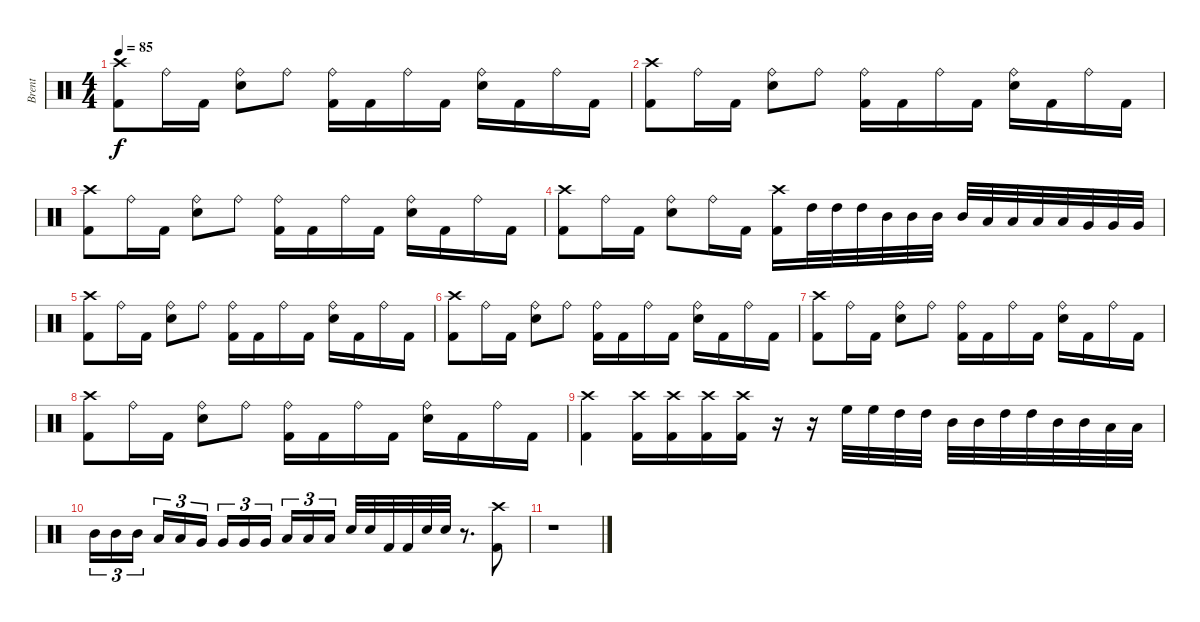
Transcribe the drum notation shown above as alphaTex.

\track ("Brent" "Brent") {instrument percussion}
\staff {score}
\articulation defaults
\ts (4 4)
\tempo 85
\clef neutral
\ks c
("Crash high (hit)" "Kick (hit) 2").8{dy f} "Ride (bell)".16 "Kick (hit) 2".16 ("Ride (bell)" "Snare (hit) 2").8 "Ride (bell)".8 ("Ride (bell)" "Kick (hit) 2").16 "Kick (hit) 2".16 "Ride (bell)".16 "Kick (hit) 2".16 ("Ride (bell)" "Snare (hit) 2").16 "Kick (hit) 2".16 "Ride (bell)".16 "Kick (hit) 2".16 |
("Crash high (hit)" "Kick (hit) 2").8 "Ride (bell)".16 "Kick (hit) 2".16 ("Ride (bell)" "Snare (hit) 2").8 "Ride (bell)".8 ("Ride (bell)" "Kick (hit) 2").16 "Kick (hit) 2".16 "Ride (bell)".16 "Kick (hit) 2".16 ("Ride (bell)" "Snare (hit) 2").16 "Kick (hit) 2".16 "Ride (bell)".16 "Kick (hit) 2".16 |
("Crash high (hit)" "Kick (hit) 2").8 "Ride (bell)".16 "Kick (hit) 2".16 ("Ride (bell)" "Snare (hit) 2").8 "Ride (bell)".8 ("Ride (bell)" "Kick (hit) 2").16 "Kick (hit) 2".16 "Ride (bell)".16 "Kick (hit) 2".16 ("Ride (bell)" "Snare (hit) 2").16 "Kick (hit) 2".16 "Ride (bell)".16 "Kick (hit) 2".16 |
("Crash high (hit)" "Kick (hit) 2").8 "Ride (bell)".16 "Kick (hit) 2".16 ("Ride (bell)" "Snare (hit) 2").8 "Ride (bell)".16 "Kick (hit) 2".16 ("Crash high (hit)" "Kick (hit) 2").16 "High Tom (hit)".32 "High Tom (hit)".32 "High Tom (hit)".32 "Mid Tom (hit)".32 "Mid Tom (hit)".32 "Mid Tom (hit)".32 "Mid Tom (hit)".32 "Low Tom (hit)".32 "Low Tom (hit)".32 "Low Tom (hit)".32 "Low Tom (hit)".32 "Very Low Tom (hit)".32 "Very Low Tom (hit)".32 "Very Low Tom (hit)".32 |
("Crash high (hit)" "Kick (hit) 2").8 "Ride (bell)".16 "Kick (hit) 2".16 ("Ride (bell)" "Snare (hit) 2").8 "Ride (bell)".8 ("Ride (bell)" "Kick (hit) 2").16 "Kick (hit) 2".16 "Ride (bell)".16 "Kick (hit) 2".16 ("Ride (bell)" "Snare (hit) 2").16 "Kick (hit) 2".16 "Ride (bell)".16 "Kick (hit) 2".16 |
("Crash high (hit)" "Kick (hit) 2").8 "Ride (bell)".16 "Kick (hit) 2".16 ("Ride (bell)" "Snare (hit) 2").8 "Ride (bell)".8 ("Ride (bell)" "Kick (hit) 2").16 "Kick (hit) 2".16 "Ride (bell)".16 "Kick (hit) 2".16 ("Ride (bell)" "Snare (hit) 2").16 "Kick (hit) 2".16 "Ride (bell)".16 "Kick (hit) 2".16 |
("Crash high (hit)" "Kick (hit) 2").8 "Ride (bell)".16 "Kick (hit) 2".16 ("Ride (bell)" "Snare (hit) 2").8 "Ride (bell)".8 ("Ride (bell)" "Kick (hit) 2").16 "Kick (hit) 2".16 "Ride (bell)".16 "Kick (hit) 2".16 ("Ride (bell)" "Snare (hit) 2").16 "Kick (hit) 2".16 "Ride (bell)".16 "Kick (hit) 2".16 |
("Crash high (hit)" "Kick (hit) 2").8 "Ride (bell)".16 "Kick (hit) 2".16 ("Ride (bell)" "Snare (hit) 2").8 "Ride (bell)".8 ("Ride (bell)" "Kick (hit) 2").16 "Kick (hit) 2".16 "Ride (bell)".16 "Kick (hit) 2".16 ("Ride (bell)" "Snare (hit) 2").16 "Kick (hit) 2".16 "Ride (bell)".16 "Kick (hit) 2".16 |
("Crash high (hit)" "Kick (hit) 2").4 ("Crash high (hit)" "Kick (hit) 2").16 ("Crash high (hit)" "Kick (hit) 2").16 ("Crash high (hit)" "Kick (hit) 2").16 ("Crash high (hit)" "Kick (hit) 2").16 r.16 r.16 "High Floor Tom (hit)".32 "High Floor Tom (hit)".32 "High Tom (hit)".32 "High Tom (hit)".32 "Mid Tom (hit)".32 "Mid Tom (hit)".32 "High Tom (hit)".32 "High Tom (hit)".32 "Mid Tom (hit)".32 "Mid Tom (hit)".32 "Low Tom (hit)".32 "Low Tom (hit)".32 |
"Mid Tom (hit)".16{tu (3 2)} "Mid Tom (hit)".16{tu (3 2)} "Mid Tom (hit)".16{tu (3 2)} "Low Tom (hit)".16{tu (3 2)} "Low Tom (hit)".16{tu (3 2)} "Very Low Tom (hit)".16{tu (3 2)} "Very Low Tom (hit)".16{tu (3 2)} "Very Low Tom (hit)".16{tu (3 2)} "Very Low Tom (hit)".16{tu (3 2)} "Low Floor Tom (hit)".16{tu (3 2)} "Low Floor Tom (hit)".16{tu (3 2)} "Low Floor Tom (hit)".16{tu (3 2)} "Snare (hit) 2".32 "Snare (hit) 2".32 "Kick (hit) 2".32 "Kick (hit) 2".32 "Snare (hit) 2".32 "Snare (hit) 2".32 r.8{d} ("Crash high (hit)" "Kick (hit) 2").8 |
r.1
